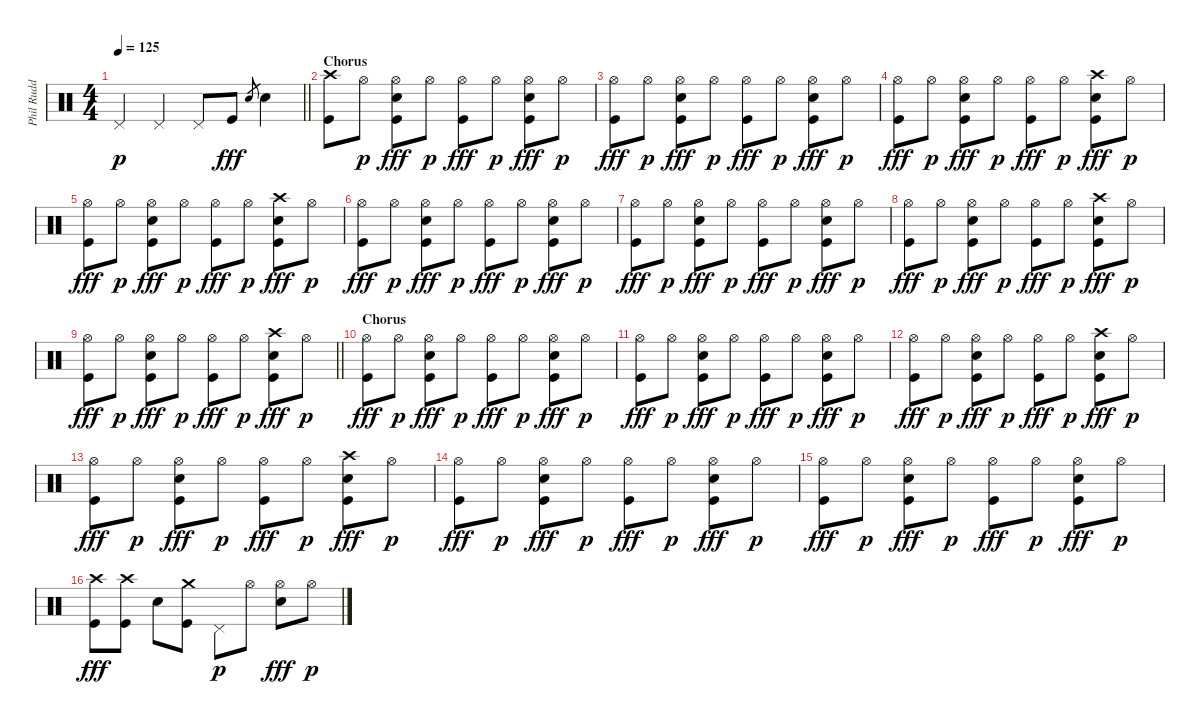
\track ("Phil Rudd" "Phil Rudd") {instrument percussion}
\staff {score}
\articulation defaults
\ts (4 4)
\tempo 125
\clef neutral
\barLineRight lightlight
\ks c "Pedal Hi-Hat (hit)".4{dy p} "Pedal Hi-Hat (hit)".4 "Pedal Hi-Hat (hit)".8 "Kick (hit)".8{dy fff} "Snare (hit) 2".8{gr} "Snare (hit) 2".4
|
\section ("" "Chorus")
("Crash high (hit)" "Kick (hit)").8 "Hi-Hat (open)".8{dy p} ("Hi-Hat (open)" "Snare (hit) 2" "Kick (hit)").8{dy fff} "Hi-Hat (open)".8{dy p} ("Hi-Hat (open)" "Kick (hit)").8{dy fff} "Hi-Hat (open)".8{dy p} ("Hi-Hat (open)" "Snare (hit) 2" "Kick (hit)").8{dy fff} "Hi-Hat (open)".8{dy p} |
("Hi-Hat (open)" "Kick (hit)").8{dy fff} "Hi-Hat (open)".8{dy p} ("Hi-Hat (open)" "Snare (hit) 2" "Kick (hit)").8{dy fff} "Hi-Hat (open)".8{dy p} ("Hi-Hat (open)" "Kick (hit)").8{dy fff} "Hi-Hat (open)".8{dy p} ("Hi-Hat (open)" "Snare (hit) 2" "Kick (hit)").8{dy fff} "Hi-Hat (open)".8{dy p} |
("Hi-Hat (open)" "Kick (hit)").8{dy fff} "Hi-Hat (open)".8{dy p} ("Hi-Hat (open)" "Snare (hit) 2" "Kick (hit)").8{dy fff} "Hi-Hat (open)".8{dy p} ("Hi-Hat (open)" "Kick (hit)").8{dy fff} "Hi-Hat (open)".8{dy p} ("Snare (hit) 2" "Crash high (hit)" "Kick (hit)").8{dy fff} "Hi-Hat (open)".8{dy p} |
("Hi-Hat (open)" "Kick (hit)").8{dy fff} "Hi-Hat (open)".8{dy p} ("Hi-Hat (open)" "Snare (hit) 2" "Kick (hit)").8{dy fff} "Hi-Hat (open)".8{dy p} ("Hi-Hat (open)" "Kick (hit)").8{dy fff} "Hi-Hat (open)".8{dy p} ("Snare (hit) 2" "Crash high (hit)" "Kick (hit)").8{dy fff} "Hi-Hat (open)".8{dy p} |
("Hi-Hat (open)" "Kick (hit)").8{dy fff} "Hi-Hat (open)".8{dy p} ("Hi-Hat (open)" "Snare (hit) 2" "Kick (hit)").8{dy fff} "Hi-Hat (open)".8{dy p} ("Hi-Hat (open)" "Kick (hit)").8{dy fff} "Hi-Hat (open)".8{dy p} ("Hi-Hat (open)" "Snare (hit) 2" "Kick (hit)").8{dy fff} "Hi-Hat (open)".8{dy p} |
("Hi-Hat (open)" "Kick (hit)").8{dy fff} "Hi-Hat (open)".8{dy p} ("Hi-Hat (open)" "Snare (hit) 2" "Kick (hit)").8{dy fff} "Hi-Hat (open)".8{dy p} ("Hi-Hat (open)" "Kick (hit)").8{dy fff} "Hi-Hat (open)".8{dy p} ("Hi-Hat (open)" "Snare (hit) 2" "Kick (hit)").8{dy fff} "Hi-Hat (open)".8{dy p} |
("Hi-Hat (open)" "Kick (hit)").8{dy fff} "Hi-Hat (open)".8{dy p} ("Hi-Hat (open)" "Snare (hit) 2" "Kick (hit)").8{dy fff} "Hi-Hat (open)".8{dy p} ("Hi-Hat (open)" "Kick (hit)").8{dy fff} "Hi-Hat (open)".8{dy p} ("Snare (hit) 2" "Crash high (hit)" "Kick (hit)").8{dy fff} "Hi-Hat (open)".8{dy p} |
\barLineRight lightlight
("Hi-Hat (open)" "Kick (hit)").8{dy fff} "Hi-Hat (open)".8{dy p} ("Hi-Hat (open)" "Snare (hit) 2" "Kick (hit)").8{dy fff} "Hi-Hat (open)".8{dy p} ("Hi-Hat (open)" "Kick (hit)").8{dy fff} "Hi-Hat (open)".8{dy p} ("Snare (hit) 2" "Crash high (hit)" "Kick (hit)").8{dy fff} "Hi-Hat (open)".8{dy p} |
\section ("" "Chorus")
("Hi-Hat (open)" "Kick (hit)").8{dy fff} "Hi-Hat (open)".8{dy p} ("Hi-Hat (open)" "Snare (hit) 2" "Kick (hit)").8{dy fff} "Hi-Hat (open)".8{dy p} ("Hi-Hat (open)" "Kick (hit)").8{dy fff} "Hi-Hat (open)".8{dy p} ("Hi-Hat (open)" "Snare (hit) 2" "Kick (hit)").8{dy fff} "Hi-Hat (open)".8{dy p} |
("Hi-Hat (open)" "Kick (hit)").8{dy fff} "Hi-Hat (open)".8{dy p} ("Hi-Hat (open)" "Snare (hit) 2" "Kick (hit)").8{dy fff} "Hi-Hat (open)".8{dy p} ("Hi-Hat (open)" "Kick (hit)").8{dy fff} "Hi-Hat (open)".8{dy p} ("Hi-Hat (open)" "Snare (hit) 2" "Kick (hit)").8{dy fff} "Hi-Hat (open)".8{dy p} |
("Hi-Hat (open)" "Kick (hit)").8{dy fff} "Hi-Hat (open)".8{dy p} ("Hi-Hat (open)" "Snare (hit) 2" "Kick (hit)").8{dy fff} "Hi-Hat (open)".8{dy p} ("Hi-Hat (open)" "Kick (hit)").8{dy fff} "Hi-Hat (open)".8{dy p} ("Snare (hit) 2" "Crash high (hit)" "Kick (hit)").8{dy fff} "Hi-Hat (open)".8{dy p} |
("Hi-Hat (open)" "Kick (hit)").8{dy fff} "Hi-Hat (open)".8{dy p} ("Hi-Hat (open)" "Snare (hit) 2" "Kick (hit)").8{dy fff} "Hi-Hat (open)".8{dy p} ("Hi-Hat (open)" "Kick (hit)").8{dy fff} "Hi-Hat (open)".8{dy p} ("Snare (hit) 2" "Crash high (hit)" "Kick (hit)").8{dy fff} "Hi-Hat (open)".8{dy p} |
("Hi-Hat (open)" "Kick (hit)").8{dy fff} "Hi-Hat (open)".8{dy p} ("Hi-Hat (open)" "Snare (hit) 2" "Kick (hit)").8{dy fff} "Hi-Hat (open)".8{dy p} ("Hi-Hat (open)" "Kick (hit)").8{dy fff} "Hi-Hat (open)".8{dy p} ("Hi-Hat (open)" "Snare (hit) 2" "Kick (hit)").8{dy fff} "Hi-Hat (open)".8{dy p} |
("Hi-Hat (open)" "Kick (hit)").8{dy fff} "Hi-Hat (open)".8{dy p} ("Hi-Hat (open)" "Snare (hit) 2" "Kick (hit)").8{dy fff} "Hi-Hat (open)".8{dy p} ("Hi-Hat (open)" "Kick (hit)").8{dy fff} "Hi-Hat (open)".8{dy p} ("Hi-Hat (open)" "Snare (hit) 2" "Kick (hit)").8{dy fff} "Hi-Hat (open)".8{dy p} |
("Crash high (hit)" "Kick (hit)").8{dy fff} ("Crash high (hit)" "Kick (hit)").8 "Snare (hit) 2".8 ("Crash medium (hit)" "Kick (hit)").8 "Pedal Hi-Hat (hit)".8{dy p} "Hi-Hat (open)".8 ("Hi-Hat (open)" "Snare (hit) 2").8{dy fff} "Hi-Hat (open)".8{dy p}
